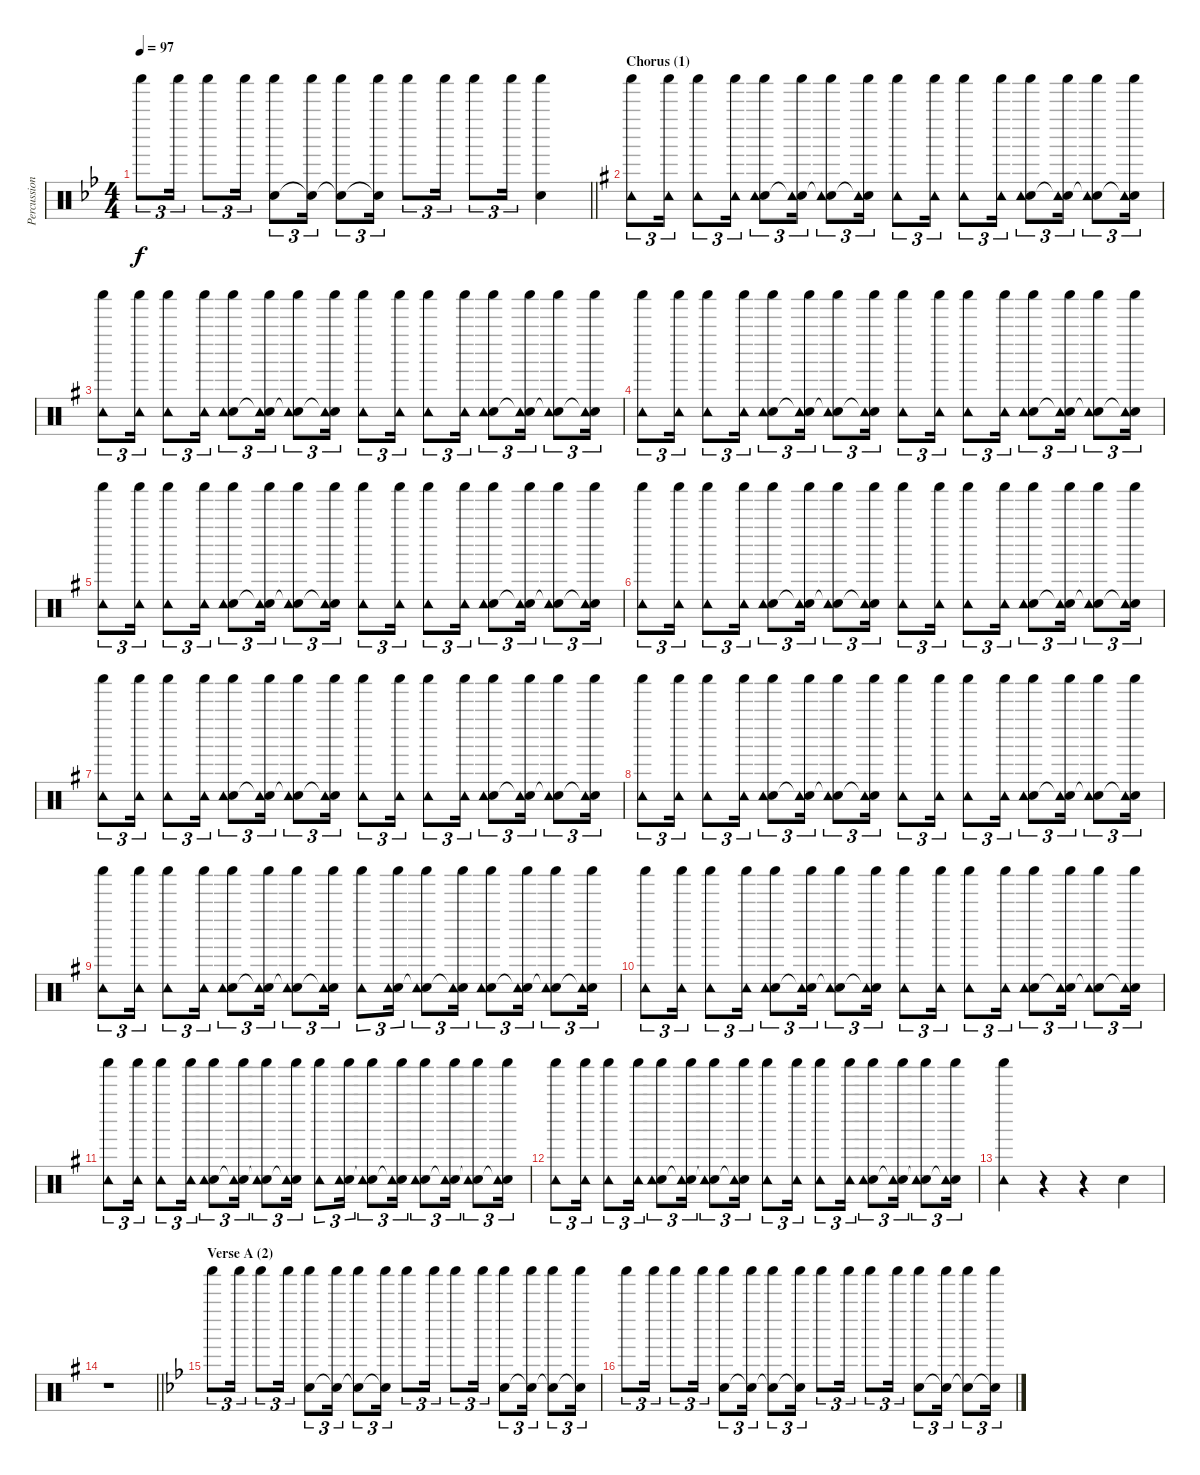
\track ("Percussion" "Percussion") {instrument percussion}
\staff {score}
\articulation defaults
\ts (4 4)
\tempo 97
\clef neutral
\barLineRight lightlight
\ks bb "Shaker (hit)".8{tu (3 2) dy f} "Shaker (hit)".16{tu (3 2)} "Shaker (hit)".8{tu (3 2)} "Shaker (hit)".16{tu (3 2)}
("Hand Clap (hit)" "Shaker (hit)").8{tu (3 2)} ("Snare (hit)"{t} "Shaker (hit)").16{tu (3 2)} ("Hand Clap (hit)"{t} "Shaker (hit)").8{tu (3 2)} ("Snare (hit)"{t} "Shaker (hit)").16{tu (3 2)} "Shaker (hit)".8{tu (3 2)} "Shaker (hit)".16{tu (3 2)} "Shaker (hit)".8{tu (3 2)} "Shaker (hit)".16{tu (3 2)} ("Hand Clap (hit)" "Shaker (hit)").4 |
\section ("" "Chorus (1)")
\ks g
("Shaker (hit)" "Tambourine (hit)").8{tu (3 2)} ("Shaker (hit)" "Tambourine (hit)").16{tu (3 2)} ("Shaker (hit)" "Tambourine (hit)").8{tu (3 2)} ("Shaker (hit)" "Tambourine (hit)").16{tu (3 2)} ("Hand Clap (hit)" "Shaker (hit)" "Tambourine (hit)").8{tu (3 2)} ("Snare (hit)"{t} "Shaker (hit)" "Tambourine (hit)").16{tu (3 2)} ("Snare (hit)"{t} "Shaker (hit)" "Tambourine (hit)").8{tu (3 2)} ("Snare (hit)"{t} "Shaker (hit)" "Tambourine (hit)").16{tu (3 2)} ("Shaker (hit)" "Tambourine (hit)").8{tu (3 2)} ("Shaker (hit)" "Tambourine (hit)").16{tu (3 2)} ("Shaker (hit)" "Tambourine (hit)").8{tu (3 2)} ("Shaker (hit)" "Tambourine (hit)").16{tu (3 2)} ("Hand Clap (hit)" "Shaker (hit)" "Tambourine (hit)").8{tu (3 2)} ("Snare (hit)"{t} "Shaker (hit)" "Tambourine (hit)").16{tu (3 2)} ("Snare (hit)"{t} "Shaker (hit)" "Tambourine (hit)").8{tu (3 2)} ("Snare (hit)"{t} "Shaker (hit)" "Tambourine (hit)").16{tu (3 2)} |
("Shaker (hit)" "Tambourine (hit)").8{tu (3 2)} ("Shaker (hit)" "Tambourine (hit)").16{tu (3 2)} ("Shaker (hit)" "Tambourine (hit)").8{tu (3 2)} ("Shaker (hit)" "Tambourine (hit)").16{tu (3 2)} ("Hand Clap (hit)" "Shaker (hit)" "Tambourine (hit)").8{tu (3 2)} ("Snare (hit)"{t} "Shaker (hit)" "Tambourine (hit)").16{tu (3 2)} ("Snare (hit)"{t} "Shaker (hit)" "Tambourine (hit)").8{tu (3 2)} ("Snare (hit)"{t} "Shaker (hit)" "Tambourine (hit)").16{tu (3 2)} ("Shaker (hit)" "Tambourine (hit)").8{tu (3 2)} ("Shaker (hit)" "Tambourine (hit)").16{tu (3 2)} ("Shaker (hit)" "Tambourine (hit)").8{tu (3 2)} ("Shaker (hit)" "Tambourine (hit)").16{tu (3 2)} ("Hand Clap (hit)" "Shaker (hit)" "Tambourine (hit)").8{tu (3 2)} ("Snare (hit)"{t} "Shaker (hit)" "Tambourine (hit)").16{tu (3 2)} ("Snare (hit)"{t} "Shaker (hit)" "Tambourine (hit)").8{tu (3 2)} ("Snare (hit)"{t} "Shaker (hit)" "Tambourine (hit)").16{tu (3 2)} |
("Shaker (hit)" "Tambourine (hit)").8{tu (3 2)} ("Shaker (hit)" "Tambourine (hit)").16{tu (3 2)} ("Shaker (hit)" "Tambourine (hit)").8{tu (3 2)} ("Shaker (hit)" "Tambourine (hit)").16{tu (3 2)} ("Hand Clap (hit)" "Shaker (hit)" "Tambourine (hit)").8{tu (3 2)} ("Snare (hit)"{t} "Shaker (hit)" "Tambourine (hit)").16{tu (3 2)} ("Snare (hit)"{t} "Shaker (hit)" "Tambourine (hit)").8{tu (3 2)} ("Snare (hit)"{t} "Shaker (hit)" "Tambourine (hit)").16{tu (3 2)} ("Shaker (hit)" "Tambourine (hit)").8{tu (3 2)} ("Shaker (hit)" "Tambourine (hit)").16{tu (3 2)} ("Shaker (hit)" "Tambourine (hit)").8{tu (3 2)} ("Shaker (hit)" "Tambourine (hit)").16{tu (3 2)} ("Hand Clap (hit)" "Shaker (hit)" "Tambourine (hit)").8{tu (3 2)} ("Snare (hit)"{t} "Shaker (hit)" "Tambourine (hit)").16{tu (3 2)} ("Snare (hit)"{t} "Shaker (hit)" "Tambourine (hit)").8{tu (3 2)} ("Snare (hit)"{t} "Shaker (hit)" "Tambourine (hit)").16{tu (3 2)} |
("Shaker (hit)" "Tambourine (hit)").8{tu (3 2)} ("Shaker (hit)" "Tambourine (hit)").16{tu (3 2)} ("Shaker (hit)" "Tambourine (hit)").8{tu (3 2)} ("Shaker (hit)" "Tambourine (hit)").16{tu (3 2)} ("Hand Clap (hit)" "Shaker (hit)" "Tambourine (hit)").8{tu (3 2)} ("Snare (hit)"{t} "Shaker (hit)" "Tambourine (hit)").16{tu (3 2)} ("Snare (hit)"{t} "Shaker (hit)" "Tambourine (hit)").8{tu (3 2)} ("Snare (hit)"{t} "Shaker (hit)" "Tambourine (hit)").16{tu (3 2)} ("Shaker (hit)" "Tambourine (hit)").8{tu (3 2)} ("Shaker (hit)" "Tambourine (hit)").16{tu (3 2)} ("Shaker (hit)" "Tambourine (hit)").8{tu (3 2)} ("Shaker (hit)" "Tambourine (hit)").16{tu (3 2)} ("Hand Clap (hit)" "Shaker (hit)" "Tambourine (hit)").8{tu (3 2)} ("Snare (hit)"{t} "Shaker (hit)" "Tambourine (hit)").16{tu (3 2)} ("Snare (hit)"{t} "Shaker (hit)" "Tambourine (hit)").8{tu (3 2)} ("Snare (hit)"{t} "Shaker (hit)" "Tambourine (hit)").16{tu (3 2)} |
("Shaker (hit)" "Tambourine (hit)").8{tu (3 2)} ("Shaker (hit)" "Tambourine (hit)").16{tu (3 2)} ("Shaker (hit)" "Tambourine (hit)").8{tu (3 2)} ("Shaker (hit)" "Tambourine (hit)").16{tu (3 2)} ("Hand Clap (hit)" "Shaker (hit)" "Tambourine (hit)").8{tu (3 2)} ("Snare (hit)"{t} "Shaker (hit)" "Tambourine (hit)").16{tu (3 2)} ("Snare (hit)"{t} "Shaker (hit)" "Tambourine (hit)").8{tu (3 2)} ("Snare (hit)"{t} "Shaker (hit)" "Tambourine (hit)").16{tu (3 2)} ("Shaker (hit)" "Tambourine (hit)").8{tu (3 2)} ("Shaker (hit)" "Tambourine (hit)").16{tu (3 2)} ("Shaker (hit)" "Tambourine (hit)").8{tu (3 2)} ("Shaker (hit)" "Tambourine (hit)").16{tu (3 2)} ("Hand Clap (hit)" "Shaker (hit)" "Tambourine (hit)").8{tu (3 2)} ("Snare (hit)"{t} "Shaker (hit)" "Tambourine (hit)").16{tu (3 2)} ("Snare (hit)"{t} "Shaker (hit)" "Tambourine (hit)").8{tu (3 2)} ("Snare (hit)"{t} "Shaker (hit)" "Tambourine (hit)").16{tu (3 2)} |
("Shaker (hit)" "Tambourine (hit)").8{tu (3 2)} ("Shaker (hit)" "Tambourine (hit)").16{tu (3 2)} ("Shaker (hit)" "Tambourine (hit)").8{tu (3 2)} ("Shaker (hit)" "Tambourine (hit)").16{tu (3 2)} ("Hand Clap (hit)" "Shaker (hit)" "Tambourine (hit)").8{tu (3 2)} ("Snare (hit)"{t} "Shaker (hit)" "Tambourine (hit)").16{tu (3 2)} ("Snare (hit)"{t} "Shaker (hit)" "Tambourine (hit)").8{tu (3 2)} ("Snare (hit)"{t} "Shaker (hit)" "Tambourine (hit)").16{tu (3 2)} ("Shaker (hit)" "Tambourine (hit)").8{tu (3 2)} ("Shaker (hit)" "Tambourine (hit)").16{tu (3 2)} ("Shaker (hit)" "Tambourine (hit)").8{tu (3 2)} ("Shaker (hit)" "Tambourine (hit)").16{tu (3 2)} ("Hand Clap (hit)" "Shaker (hit)" "Tambourine (hit)").8{tu (3 2)} ("Snare (hit)"{t} "Shaker (hit)" "Tambourine (hit)").16{tu (3 2)} ("Snare (hit)"{t} "Shaker (hit)" "Tambourine (hit)").8{tu (3 2)} ("Snare (hit)"{t} "Shaker (hit)" "Tambourine (hit)").16{tu (3 2)} |
("Shaker (hit)" "Tambourine (hit)").8{tu (3 2)} ("Shaker (hit)" "Tambourine (hit)").16{tu (3 2)} ("Shaker (hit)" "Tambourine (hit)").8{tu (3 2)} ("Shaker (hit)" "Tambourine (hit)").16{tu (3 2)} ("Hand Clap (hit)" "Shaker (hit)" "Tambourine (hit)").8{tu (3 2)} ("Snare (hit)"{t} "Shaker (hit)" "Tambourine (hit)").16{tu (3 2)} ("Snare (hit)"{t} "Shaker (hit)" "Tambourine (hit)").8{tu (3 2)} ("Snare (hit)"{t} "Shaker (hit)" "Tambourine (hit)").16{tu (3 2)} ("Shaker (hit)" "Tambourine (hit)").8{tu (3 2)} ("Shaker (hit)" "Tambourine (hit)").16{tu (3 2)} ("Shaker (hit)" "Tambourine (hit)").8{tu (3 2)} ("Shaker (hit)" "Tambourine (hit)").16{tu (3 2)} ("Hand Clap (hit)" "Shaker (hit)" "Tambourine (hit)").8{tu (3 2)} ("Snare (hit)"{t} "Shaker (hit)" "Tambourine (hit)").16{tu (3 2)} ("Snare (hit)"{t} "Shaker (hit)" "Tambourine (hit)").8{tu (3 2)} ("Snare (hit)"{t} "Shaker (hit)" "Tambourine (hit)").16{tu (3 2)} |
("Shaker (hit)" "Tambourine (hit)").8{tu (3 2)} ("Shaker (hit)" "Tambourine (hit)").16{tu (3 2)} ("Shaker (hit)" "Tambourine (hit)").8{tu (3 2)} ("Shaker (hit)" "Tambourine (hit)").16{tu (3 2)} ("Hand Clap (hit)" "Shaker (hit)" "Tambourine (hit)").8{tu (3 2)} ("Snare (hit)"{t} "Shaker (hit)" "Tambourine (hit)").16{tu (3 2)} ("Snare (hit)"{t} "Shaker (hit)" "Tambourine (hit)").8{tu (3 2)} ("Snare (hit)"{t} "Shaker (hit)" "Tambourine (hit)").16{tu (3 2)} ("Shaker (hit)" "Tambourine (hit)").8{tu (3 2)} ("Hand Clap (hit)" "Shaker (hit)" "Tambourine (hit)").16{tu (3 2)} ("Snare (hit)"{t} "Shaker (hit)" "Tambourine (hit)").8{tu (3 2)} ("Snare (hit)"{t} "Shaker (hit)" "Tambourine (hit)").16{tu (3 2)} ("Hand Clap (hit)" "Shaker (hit)" "Tambourine (hit)").8{tu (3 2)} ("Snare (hit)"{t} "Shaker (hit)" "Tambourine (hit)").16{tu (3 2)} ("Snare (hit)"{t} "Shaker (hit)" "Tambourine (hit)").8{tu (3 2)} ("Snare (hit)"{t} "Shaker (hit)" "Tambourine (hit)").16{tu (3 2)} |
("Shaker (hit)" "Tambourine (hit)").8{tu (3 2)} ("Shaker (hit)" "Tambourine (hit)").16{tu (3 2)} ("Shaker (hit)" "Tambourine (hit)").8{tu (3 2)} ("Shaker (hit)" "Tambourine (hit)").16{tu (3 2)} ("Hand Clap (hit)" "Shaker (hit)" "Tambourine (hit)").8{tu (3 2)} ("Snare (hit)"{t} "Shaker (hit)" "Tambourine (hit)").16{tu (3 2)} ("Snare (hit)"{t} "Shaker (hit)" "Tambourine (hit)").8{tu (3 2)} ("Snare (hit)"{t} "Shaker (hit)" "Tambourine (hit)").16{tu (3 2)} ("Shaker (hit)" "Tambourine (hit)").8{tu (3 2)} ("Shaker (hit)" "Tambourine (hit)").16{tu (3 2)} ("Shaker (hit)" "Tambourine (hit)").8{tu (3 2)} ("Shaker (hit)" "Tambourine (hit)").16{tu (3 2)} ("Hand Clap (hit)" "Shaker (hit)" "Tambourine (hit)").8{tu (3 2)} ("Snare (hit)"{t} "Shaker (hit)" "Tambourine (hit)").16{tu (3 2)} ("Snare (hit)"{t} "Shaker (hit)" "Tambourine (hit)").8{tu (3 2)} ("Snare (hit)"{t} "Shaker (hit)" "Tambourine (hit)").16{tu (3 2)} |
("Shaker (hit)" "Tambourine (hit)").8{tu (3 2)} ("Shaker (hit)" "Tambourine (hit)").16{tu (3 2)} ("Shaker (hit)" "Tambourine (hit)").8{tu (3 2)} ("Shaker (hit)" "Tambourine (hit)").16{tu (3 2)} ("Hand Clap (hit)" "Shaker (hit)" "Tambourine (hit)").8{tu (3 2)} ("Snare (hit)"{t} "Shaker (hit)" "Tambourine (hit)").16{tu (3 2)} ("Snare (hit)"{t} "Shaker (hit)" "Tambourine (hit)").8{tu (3 2)} ("Snare (hit)"{t} "Shaker (hit)" "Tambourine (hit)").16{tu (3 2)} ("Shaker (hit)" "Tambourine (hit)").8{tu (3 2)} ("Hand Clap (hit)" "Shaker (hit)" "Tambourine (hit)").16{tu (3 2)} ("Snare (hit)"{t} "Shaker (hit)" "Tambourine (hit)").8{tu (3 2)} ("Snare (hit)"{t} "Shaker (hit)" "Tambourine (hit)").16{tu (3 2)} ("Hand Clap (hit)" "Shaker (hit)" "Tambourine (hit)").8{tu (3 2)} ("Snare (hit)"{t} "Shaker (hit)" "Tambourine (hit)").16{tu (3 2)} ("Snare (hit)"{t} "Shaker (hit)" "Tambourine (hit)").8{tu (3 2)} ("Snare (hit)"{t} "Shaker (hit)" "Tambourine (hit)").16{tu (3 2)} |
("Shaker (hit)" "Tambourine (hit)").8{tu (3 2)} ("Shaker (hit)" "Tambourine (hit)").16{tu (3 2)} ("Shaker (hit)" "Tambourine (hit)").8{tu (3 2)} ("Shaker (hit)" "Tambourine (hit)").16{tu (3 2)} ("Hand Clap (hit)" "Shaker (hit)" "Tambourine (hit)").8{tu (3 2)} ("Snare (hit)"{t} "Shaker (hit)" "Tambourine (hit)").16{tu (3 2)} ("Snare (hit)"{t} "Shaker (hit)" "Tambourine (hit)").8{tu (3 2)} ("Snare (hit)"{t} "Shaker (hit)" "Tambourine (hit)").16{tu (3 2)} ("Shaker (hit)" "Tambourine (hit)").8{tu (3 2)} ("Shaker (hit)" "Tambourine (hit)").16{tu (3 2)} ("Shaker (hit)" "Tambourine (hit)").8{tu (3 2)} ("Shaker (hit)" "Tambourine (hit)").16{tu (3 2)} ("Hand Clap (hit)" "Shaker (hit)" "Tambourine (hit)").8{tu (3 2)} ("Snare (hit)"{t} "Shaker (hit)" "Tambourine (hit)").16{tu (3 2)} ("Snare (hit)"{t} "Shaker (hit)" "Tambourine (hit)").8{tu (3 2)} ("Snare (hit)"{t} "Shaker (hit)" "Tambourine (hit)").16{tu (3 2)} |
("Shaker (hit)" "Tambourine (hit)").4 r.4 r.4 "Hand Clap (hit)".4 |
\barLineRight lightlight
r.1 |
\section ("" "Verse A (2)")
\ks bb "Shaker (hit)".8{tu (3 2)} "Shaker (hit)".16{tu (3 2)} "Shaker (hit)".8{tu (3 2)} "Shaker (hit)".16{tu (3 2)}
("Hand Clap (hit)" "Shaker (hit)").8{tu (3 2)} ("Snare (hit)"{t} "Shaker (hit)").16{tu (3 2)} ("Snare (hit)"{t} "Shaker (hit)").8{tu (3 2)} ("Snare (hit)"{t} "Shaker (hit)").16{tu (3 2)} "Shaker (hit)".8{tu (3 2)} "Shaker (hit)".16{tu (3 2)} "Shaker (hit)".8{tu (3 2)} "Shaker (hit)".16{tu (3 2)} ("Hand Clap (hit)" "Shaker (hit)").8{tu (3 2)} ("Snare (hit)"{t} "Shaker (hit)").16{tu (3 2)} ("Snare (hit)"{t} "Shaker (hit)").8{tu (3 2)} ("Snare (hit)"{t} "Shaker (hit)").16{tu (3 2)} |
"Shaker (hit)".8{tu (3 2)} "Shaker (hit)".16{tu (3 2)} "Shaker (hit)".8{tu (3 2)} "Shaker (hit)".16{tu (3 2)} ("Hand Clap (hit)" "Shaker (hit)").8{tu (3 2)} ("Snare (hit)"{t} "Shaker (hit)").16{tu (3 2)} ("Snare (hit)"{t} "Shaker (hit)").8{tu (3 2)} ("Snare (hit)"{t} "Shaker (hit)").16{tu (3 2)} "Shaker (hit)".8{tu (3 2)} "Shaker (hit)".16{tu (3 2)} "Shaker (hit)".8{tu (3 2)} "Shaker (hit)".16{tu (3 2)} ("Hand Clap (hit)" "Shaker (hit)").8{tu (3 2)} ("Snare (hit)"{t} "Shaker (hit)").16{tu (3 2)} ("Snare (hit)"{t} "Shaker (hit)").8{tu (3 2)} ("Snare (hit)"{t} "Shaker (hit)").16{tu (3 2)}
